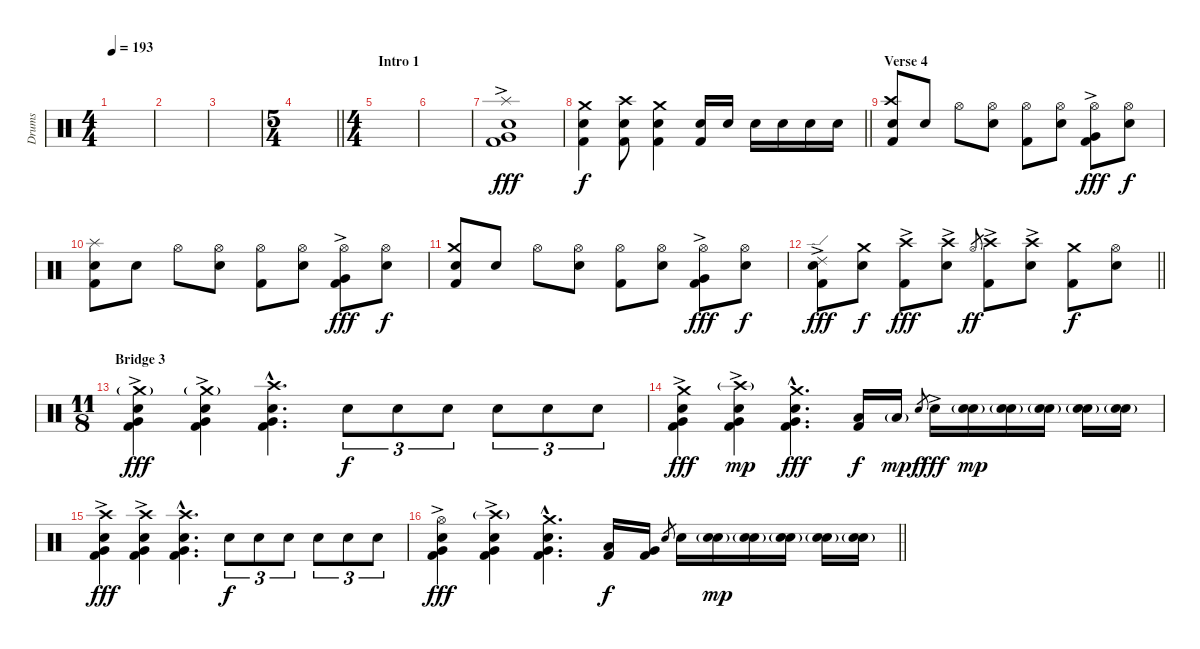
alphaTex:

\track ("Drums" "Drums") {instrument percussion}
\staff {score}
\articulation defaults
\ts (4 4)
\tempo 193
\clef neutral
\ks c
|
|
|
\ts (5 4)
\barLineRight lightlight
|
\ts (4 4)
\section ("" "Intro 1")
|
|
("Splash (hit)" "Electric Snare (hit)"{ac} "Very Low Tom (hit)"{ac} "Kick (hit) 2"{ac}).1{dy fff} |
\barLineRight lightlight
("Crash medium (hit)" "Electric Snare (hit)" "Kick (hit) 2").4{dy f} ("Crash high (hit)" "Electric Snare (hit)" "Kick (hit) 2").8 ("Crash medium (hit)" "Electric Snare (hit)" "Kick (hit) 2").4 ("Electric Snare (hit)" "Kick (hit) 2").16 "Electric Snare (hit)".16 "Electric Snare (hit)".16 "Electric Snare (hit)".16 "Electric Snare (hit)".16 "Electric Snare (hit)".16 |
\section ("" "Verse 4")
("Crash high (hit)" "Snare (hit) 2" "Kick (hit) 2").8 "Electric Snare (hit)".8 "Hi-Hat (open)".8 ("Hi-Hat (open)" "Electric Snare (hit)").8 ("Hi-Hat (open)" "Kick (hit) 2").8 ("Hi-Hat (open)" "Electric Snare (hit)").8 ("Hi-Hat (open)" "Very Low Tom (hit)"{ac} "Kick (hit) 2"{ac}).8{dy fff} ("Hi-Hat (open)" "Electric Snare (hit)").8{dy f} |
("Splash (hit)" "Snare (hit) 2" "Kick (hit) 2").8 "Electric Snare (hit)".8 "Hi-Hat (open)".8 ("Hi-Hat (open)" "Electric Snare (hit)").8 ("Hi-Hat (open)" "Kick (hit) 2").8 ("Hi-Hat (open)" "Electric Snare (hit)").8 ("Hi-Hat (open)" "Very Low Tom (hit)"{ac} "Kick (hit) 2"{ac}).8{dy fff} ("Hi-Hat (open)" "Electric Snare (hit)").8{dy f} |
("Crash medium (hit)" "Snare (hit) 2" "Kick (hit) 2").8 "Electric Snare (hit)".8 "Hi-Hat (open)".8 ("Hi-Hat (open)" "Electric Snare (hit)").8 ("Hi-Hat (open)" "Kick (hit) 2").8 ("Hi-Hat (open)" "Electric Snare (hit)").8 ("Hi-Hat (open)" "Very Low Tom (hit)"{ac} "Kick (hit) 2"{ac}).8{dy fff} ("Hi-Hat (open)" "Electric Snare (hit)").8{dy f} |
\barLineRight lightlight
("Ride (edge) 2"{ac} "Snare (hit) 2" "Kick (hit) 2").8{dy fff} ("Crash medium (hit)" "Electric Snare (hit)").8{dy f} ("Crash high (hit)"{ac} "Kick (hit) 2").8{dy fff} ("Crash high (hit)"{ac} "Electric Snare (hit)").8 "Hi-Hat (open)".8{gr dy ff} ("Crash high (hit)"{ac} "Kick (hit) 2").8 ("Crash high (hit)"{ac} "Electric Snare (hit)").8 ("Crash medium (hit)" "Kick (hit) 2").8{dy f} ("Hi-Hat (open)" "Electric Snare (hit)").8 |
\ts (11 8)
\section ("" "Bridge 3")
("Crash medium (hit)"{g} "Electric Snare (hit)" "Very Low Tom (hit)"{ac} "Kick (hit) 2"{ac}).4{dy fff} ("Crash medium (hit)"{g} "Electric Snare (hit)" "Very Low Tom (hit)"{ac} "Kick (hit) 2"{ac}).4 ("Crash high (hit)"{hac} "Electric Snare (hit)"{hac} "Very Low Tom (hit)"{hac} "Kick (hit) 2"{hac}).4{d} "Electric Snare (hit)".8{tu (3 2) dy f} "Electric Snare (hit)".8{tu (3 2)} "Electric Snare (hit)".8{tu (3 2)} "Electric Snare (hit)".8{tu (3 2)} "Electric Snare (hit)".8{tu (3 2)} "Electric Snare (hit)".8{tu (3 2)} |
("Crash medium (hit)"{ac} "Electric Snare (hit)" "Very Low Tom (hit)"{ac} "Kick (hit) 2"{ac}).4{dy fff} ("Crash high (hit)"{g} "Electric Snare (hit)" "Very Low Tom (hit)"{ac} "Kick (hit) 2"{ac}).4{dy mp} ("Crash medium (hit)"{hac} "Electric Snare (hit)"{hac} "Very Low Tom (hit)"{hac} "Kick (hit) 2"{hac}).4{d dy fff} ("Low Tom (hit)" "Kick (hit) 2").16{dy f} "Low Tom (hit)"{g}.16{dy mp} "Electric Snare (hit)".8{gr dy f} "Electric Snare (hit)"{ac}.16{dy fff} ("Snare (hit) 2"{g} "Electric Snare (hit)").16{dy mp} ("Snare (hit) 2"{g} "Electric Snare (hit)").16 ("Snare (hit) 2"{g} "Electric Snare (hit)").16 ("Snare (hit) 2"{g} "Electric Snare (hit)").16 ("Snare (hit) 2"{g} "Electric Snare (hit)").16 |
("Crash high (hit)" "Electric Snare (hit)" "Very Low Tom (hit)"{ac} "Kick (hit) 2"{ac}).4{dy fff} ("Crash high (hit)" "Electric Snare (hit)" "Very Low Tom (hit)"{ac} "Kick (hit) 2"{ac}).4 ("Crash high (hit)"{hac} "Electric Snare (hit)"{hac} "Very Low Tom (hit)"{hac} "Kick (hit) 2"{hac}).4{d} "Electric Snare (hit)".8{tu (3 2) dy f} "Electric Snare (hit)".8{tu (3 2)} "Electric Snare (hit)".8{tu (3 2)} "Electric Snare (hit)".8{tu (3 2)} "Electric Snare (hit)".8{tu (3 2)} "Electric Snare (hit)".8{tu (3 2)} |
\barLineRight lightlight
("Hi-Hat (open)" "Electric Snare (hit)" "Very Low Tom (hit)"{ac} "Kick (hit) 2"{ac}).4{dy fff} ("Crash high (hit)"{g} "Electric Snare (hit)" "Very Low Tom (hit)"{ac} "Kick (hit) 2"{ac}).4 ("Crash medium (hit)"{hac} "Electric Snare (hit)"{hac} "Very Low Tom (hit)"{hac} "Kick (hit) 2"{hac}).4{d} ("Low Tom (hit)" "Kick (hit) 2").16{dy f} ("Very Low Tom (hit)" "Kick (hit) 2").16 "Electric Snare (hit)".8{gr} "Electric Snare (hit)".16 ("Snare (hit) 2"{g} "Electric Snare (hit)").16{dy mp} ("Snare (hit) 2"{g} "Electric Snare (hit)").16 ("Snare (hit) 2"{g} "Electric Snare (hit)").16 ("Snare (hit) 2"{g} "Electric Snare (hit)").16 ("Snare (hit) 2"{g} "Electric Snare (hit)").16
